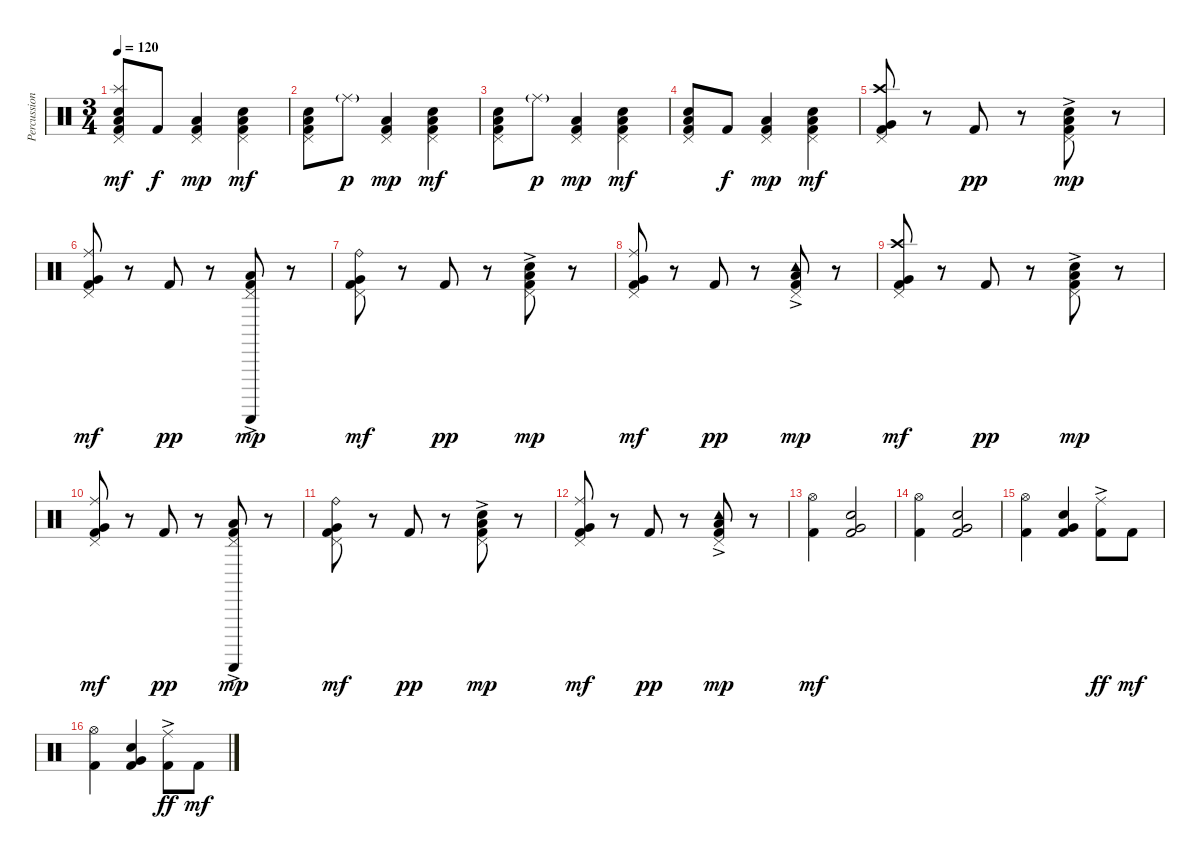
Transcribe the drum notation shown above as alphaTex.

\track ("Percussion" "Percussion") {instrument percussion}
\staff {score}
\articulation defaults
\ts (3 4)
\tempo 120
\clef neutral
\ks c
("Snare (hit) 2" "Kick (hit) 2" "Splash (hit)" "Pedal Hi-Hat (hit)" "Low Tom (hit)").8{dy mf} "Kick (hit) 2".8{dy f} ("Kick (hit) 2" "Pedal Hi-Hat (hit)" "Low Floor Tom (hit)").4{dy mp} ("Snare (hit) 2" "Kick (hit) 2" "Pedal Hi-Hat (hit)" "Low Tom (hit)").4{dy mf} |
("Snare (hit) 2" "Kick (hit) 2" "Pedal Hi-Hat (hit)" "Low Tom (hit)").8 "Ride (middle)"{g}.8{dy p} ("Kick (hit) 2" "Pedal Hi-Hat (hit)" "Low Floor Tom (hit)").4{dy mp} ("Snare (hit) 2" "Kick (hit) 2" "Pedal Hi-Hat (hit)" "Low Tom (hit)").4{dy mf} |
("Snare (hit) 2" "Kick (hit) 2" "Pedal Hi-Hat (hit)" "Low Tom (hit)").8 "Ride (middle)"{g}.8{dy p} ("Kick (hit) 2" "Pedal Hi-Hat (hit)" "Low Floor Tom (hit)").4{dy mp} ("Snare (hit) 2" "Kick (hit) 2" "Pedal Hi-Hat (hit)" "Low Tom (hit)").4{dy mf} |
("Snare (hit) 2" "Kick (hit) 2" "Pedal Hi-Hat (hit)" "Low Tom (hit)").8 "Kick (hit) 2".8{dy f} ("Kick (hit) 2" "Pedal Hi-Hat (hit)" "Low Floor Tom (hit)").4{dy mp} ("Snare (hit) 2" "Kick (hit) 2" "Pedal Hi-Hat (hit)" "Low Tom (hit)").4{dy mf} |
("Kick (hit) 2" "Pedal Hi-Hat (hit)" "Crash high (hit)" "Very Low Tom (hit)").8 r.8 "Kick (hit) 2".8{dy pp} r.8 ("Snare (hit) 2" "Kick (hit) 2"{ac} "Pedal Hi-Hat (hit)" "Low Floor Tom (hit)").8{dy mp} r.8 |
("Kick (hit) 2" "Pedal Hi-Hat (hit)" "Ride (middle)" "Very Low Tom (hit)").8{dy mf} r.8 "Kick (hit) 2".8{dy pp} r.8 ("Guiro (scrap-return)" "Kick (hit) 2"{ac} "Pedal Hi-Hat (hit)" "Low Tom (hit)").8{dy mp} r.8 |
("Kick (hit) 2" "Pedal Hi-Hat (hit)" "Ride (bell)" "Very Low Tom (hit)").8{dy mf} r.8 "Kick (hit) 2".8{dy pp} r.8 ("Snare (hit) 2" "Kick (hit) 2"{ac} "Pedal Hi-Hat (hit)" "Low Floor Tom (hit)").8{dy mp} r.8 |
("Kick (hit) 2" "Pedal Hi-Hat (hit)" "Ride (middle)" "Very Low Tom (hit)").8{dy mf} r.8 "Kick (hit) 2".8{dy pp} r.8 ("Tambourine (hit)" "Kick (hit) 2"{ac} "Pedal Hi-Hat (hit)" "Low Tom (hit)").8{dy mp} r.8 |
("Kick (hit) 2" "Pedal Hi-Hat (hit)" "Crash high (hit)" "Very Low Tom (hit)").8{dy mf} r.8 "Kick (hit) 2".8{dy pp} r.8 ("Snare (hit) 2" "Kick (hit) 2"{ac} "Pedal Hi-Hat (hit)" "Low Floor Tom (hit)").8{dy mp} r.8 |
("Kick (hit) 2" "Pedal Hi-Hat (hit)" "Ride (middle)" "Very Low Tom (hit)").8{dy mf} r.8 "Kick (hit) 2".8{dy pp} r.8 ("Guiro (scrap-return)" "Kick (hit) 2"{ac} "Pedal Hi-Hat (hit)" "Low Tom (hit)").8{dy mp} r.8 |
("Kick (hit) 2" "Pedal Hi-Hat (hit)" "Ride (bell)" "Very Low Tom (hit)").8{dy mf} r.8 "Kick (hit) 2".8{dy pp} r.8 ("Snare (hit) 2" "Kick (hit) 2"{ac} "Pedal Hi-Hat (hit)" "Low Floor Tom (hit)").8{dy mp} r.8 |
("Kick (hit) 2" "Pedal Hi-Hat (hit)" "Ride (middle)" "Very Low Tom (hit)").8{dy mf} r.8 "Kick (hit) 2".8{dy pp} r.8 ("Tambourine (hit)" "Kick (hit) 2"{ac} "Pedal Hi-Hat (hit)" "Low Tom (hit)").8{dy mp} r.8 |
("Kick (hit) 2" "Hi-Hat (open)").4{dy mf} ("Snare (hit) 2" "Kick (hit) 2" "Very Low Tom (hit)").2 |
("Kick (hit) 2" "Hi-Hat (open)").4 ("Snare (hit) 2" "Kick (hit) 2" "Very Low Tom (hit)").2 |
("Kick (hit) 2" "Hi-Hat (open)").4 ("Snare (hit) 2" "Kick (hit) 2" "Very Low Tom (hit)").4 ("Kick (hit) 2" "Ride (middle)"{ac}).8{dy ff} "Kick (hit) 2".8{dy mf} |
("Kick (hit) 2" "Hi-Hat (open)").4 ("Snare (hit) 2" "Kick (hit) 2" "Very Low Tom (hit)").4 ("Kick (hit) 2" "Ride (middle)"{ac}).8{dy ff} "Kick (hit) 2".8{dy mf}
